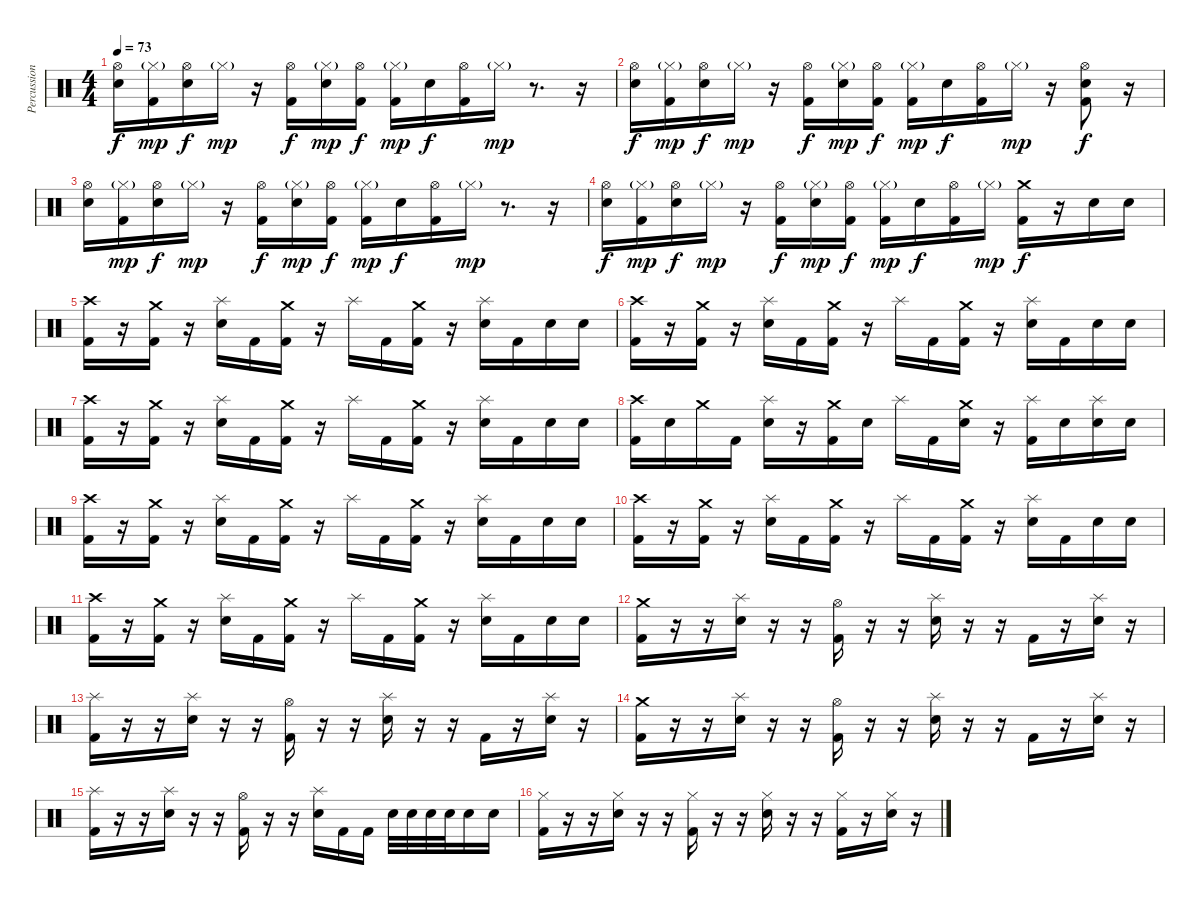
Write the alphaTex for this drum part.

\track ("Percussion" "Percussion") {instrument percussion}
\staff {score}
\articulation defaults
\ts (4 4)
\tempo 73
\clef neutral
\ks c
("Hi-Hat (open)" "Electric Snare (hit)").16{dy f} ("Hi-Hat (closed)"{g} "Kick (hit) 2").16{dy mp} ("Hi-Hat (open)" "Electric Snare (hit)").16{dy f} "Hi-Hat (closed)"{g}.16{dy mp} r.16 ("Hi-Hat (open)" "Kick (hit) 2").16{dy f} ("Hi-Hat (closed)"{g} "Electric Snare (hit)").16{dy mp} ("Hi-Hat (open)" "Kick (hit) 2").16{dy f} ("Hi-Hat (closed)"{g} "Kick (hit) 2").16{dy mp} "Electric Snare (hit)".16{dy f} ("Hi-Hat (open)" "Kick (hit) 2").16 "Hi-Hat (closed)"{g}.16{dy mp} r.8{d} r.16 |
("Hi-Hat (open)" "Electric Snare (hit)").16{dy f} ("Hi-Hat (closed)"{g} "Kick (hit) 2").16{dy mp} ("Hi-Hat (open)" "Electric Snare (hit)").16{dy f} "Hi-Hat (closed)"{g}.16{dy mp} r.16 ("Hi-Hat (open)" "Kick (hit) 2").16{dy f} ("Hi-Hat (closed)"{g} "Electric Snare (hit)").16{dy mp} ("Hi-Hat (open)" "Kick (hit) 2").16{dy f} ("Hi-Hat (closed)"{g} "Kick (hit) 2").16{dy mp} "Electric Snare (hit)".16{dy f} ("Hi-Hat (open)" "Kick (hit) 2").16 "Hi-Hat (closed)"{g}.16{dy mp} r.16 ("Hi-Hat (open)" "Electric Snare (hit)" "Kick (hit) 2").8{dy f} r.16 |
("Hi-Hat (open)" "Electric Snare (hit)").16 ("Hi-Hat (closed)"{g} "Kick (hit) 2").16{dy mp} ("Hi-Hat (open)" "Electric Snare (hit)").16{dy f} "Hi-Hat (closed)"{g}.16{dy mp} r.16 ("Hi-Hat (open)" "Kick (hit) 2").16{dy f} ("Hi-Hat (closed)"{g} "Electric Snare (hit)").16{dy mp} ("Hi-Hat (open)" "Kick (hit) 2").16{dy f} ("Hi-Hat (closed)"{g} "Kick (hit) 2").16{dy mp} "Electric Snare (hit)".16{dy f} ("Hi-Hat (open)" "Kick (hit) 2").16 "Hi-Hat (closed)"{g}.16{dy mp} r.8{d} r.16 |
("Hi-Hat (open)" "Electric Snare (hit)").16{dy f} ("Hi-Hat (closed)"{g} "Kick (hit) 2").16{dy mp} ("Hi-Hat (open)" "Electric Snare (hit)").16{dy f} "Hi-Hat (closed)"{g}.16{dy mp} r.16 ("Hi-Hat (open)" "Kick (hit) 2").16{dy f} ("Hi-Hat (closed)"{g} "Electric Snare (hit)").16{dy mp} ("Hi-Hat (open)" "Kick (hit) 2").16{dy f} ("Hi-Hat (closed)"{g} "Kick (hit) 2").16{dy mp} "Electric Snare (hit)".16{dy f} ("Hi-Hat (open)" "Kick (hit) 2").16 "Hi-Hat (closed)"{g}.16{dy mp} ("Crash medium (hit)" "Kick (hit) 2").16{dy f} r.16 "Electric Snare (hit)".16 "Electric Snare (hit)".16 |
("Crash high (hit)" "Kick (hit) 2").16 r.16 ("Crash medium (hit)" "Kick (hit) 2").16 r.16 ("Splash (hit)" "Electric Snare (hit)").16 "Kick (hit) 2".16 ("Crash medium (hit)" "Kick (hit) 2").16 r.16 "Splash (hit)".16 "Kick (hit) 2".16 ("Crash medium (hit)" "Kick (hit) 2").16 r.16 ("Splash (hit)" "Electric Snare (hit)").16 "Kick (hit) 2".16 "Electric Snare (hit)".16 "Electric Snare (hit)".16 |
("Crash high (hit)" "Kick (hit) 2").16 r.16 ("Crash medium (hit)" "Kick (hit) 2").16 r.16 ("Splash (hit)" "Electric Snare (hit)").16 "Kick (hit) 2".16 ("Crash medium (hit)" "Kick (hit) 2").16 r.16 "Splash (hit)".16 "Kick (hit) 2".16 ("Crash medium (hit)" "Kick (hit) 2").16 r.16 ("Splash (hit)" "Electric Snare (hit)").16 "Kick (hit) 2".16 "Electric Snare (hit)".16 "Electric Snare (hit)".16 |
("Crash high (hit)" "Kick (hit) 2").16 r.16 ("Crash medium (hit)" "Kick (hit) 2").16 r.16 ("Splash (hit)" "Electric Snare (hit)").16 "Kick (hit) 2".16 ("Crash medium (hit)" "Kick (hit) 2").16 r.16 "Splash (hit)".16 "Kick (hit) 2".16 ("Crash medium (hit)" "Kick (hit) 2").16 r.16 ("Splash (hit)" "Electric Snare (hit)").16 "Kick (hit) 2".16 "Electric Snare (hit)".16 "Electric Snare (hit)".16 |
("Crash high (hit)" "Kick (hit) 2").16 "Electric Snare (hit)".16 "Crash medium (hit)".16 "Kick (hit) 2".16 ("Splash (hit)" "Electric Snare (hit)").16 r.16 ("Crash medium (hit)" "Kick (hit) 2").16 "Electric Snare (hit)".16 "Splash (hit)".16 "Kick (hit) 2".16 ("Crash medium (hit)" "Electric Snare (hit)").16 r.16 ("Splash (hit)" "Kick (hit) 2").16 "Electric Snare (hit)".16 ("Splash (hit)" "Electric Snare (hit)").16 "Electric Snare (hit)".16 |
("Crash high (hit)" "Kick (hit) 2").16 r.16 ("Crash medium (hit)" "Kick (hit) 2").16 r.16 ("Splash (hit)" "Electric Snare (hit)").16 "Kick (hit) 2".16 ("Crash medium (hit)" "Kick (hit) 2").16 r.16 "Splash (hit)".16 "Kick (hit) 2".16 ("Crash medium (hit)" "Kick (hit) 2").16 r.16 ("Splash (hit)" "Electric Snare (hit)").16 "Kick (hit) 2".16 "Electric Snare (hit)".16 "Electric Snare (hit)".16 |
("Crash high (hit)" "Kick (hit) 2").16 r.16 ("Crash medium (hit)" "Kick (hit) 2").16 r.16 ("Splash (hit)" "Electric Snare (hit)").16 "Kick (hit) 2".16 ("Crash medium (hit)" "Kick (hit) 2").16 r.16 "Splash (hit)".16 "Kick (hit) 2".16 ("Crash medium (hit)" "Kick (hit) 2").16 r.16 ("Splash (hit)" "Electric Snare (hit)").16 "Kick (hit) 2".16 "Electric Snare (hit)".16 "Electric Snare (hit)".16 |
("Crash high (hit)" "Kick (hit) 2").16 r.16 ("Crash medium (hit)" "Kick (hit) 2").16 r.16 ("Splash (hit)" "Electric Snare (hit)").16 "Kick (hit) 2".16 ("Crash medium (hit)" "Kick (hit) 2").16 r.16 "Splash (hit)".16 "Kick (hit) 2".16 ("Crash medium (hit)" "Kick (hit) 2").16 r.16 ("Splash (hit)" "Electric Snare (hit)").16 "Kick (hit) 2".16 "Electric Snare (hit)".16 "Electric Snare (hit)".16 |
("Crash medium (hit)" "Kick (hit) 2").16 r.16 r.16 ("Splash (hit)" "Electric Snare (hit)").16 r.16 r.16 ("Hi-Hat (open)" "Kick (hit) 2").16 r.16 r.16 ("Splash (hit)" "Electric Snare (hit)").16 r.16 r.16 "Kick (hit) 2".16 r.16 ("Splash (hit)" "Electric Snare (hit)").16 r.16 |
("Splash (hit)" "Kick (hit) 2").16 r.16 r.16 ("Splash (hit)" "Electric Snare (hit)").16 r.16 r.16 ("Hi-Hat (open)" "Kick (hit) 2").16 r.16 r.16 ("Splash (hit)" "Electric Snare (hit)").16 r.16 r.16 "Kick (hit) 2".16 r.16 ("Splash (hit)" "Electric Snare (hit)").16 r.16 |
("Crash medium (hit)" "Kick (hit) 2").16 r.16 r.16 ("Splash (hit)" "Electric Snare (hit)").16 r.16 r.16 ("Hi-Hat (open)" "Kick (hit) 2").16 r.16 r.16 ("Splash (hit)" "Electric Snare (hit)").16 r.16 r.16 "Kick (hit) 2".16 r.16 ("Splash (hit)" "Electric Snare (hit)").16 r.16 |
("Splash (hit)" "Kick (hit) 2").16 r.16 r.16 ("Splash (hit)" "Electric Snare (hit)").16 r.16 r.16 ("Hi-Hat (open)" "Kick (hit) 2").16 r.16 r.16 ("Splash (hit)" "Electric Snare (hit)").16 "Kick (hit) 2".16 "Kick (hit) 2".16 "Electric Snare (hit)".32 "Electric Snare (hit)".32 "Electric Snare (hit)".32 "Electric Snare (hit)".32 "Electric Snare (hit)".16 "Electric Snare (hit)".16 |
("Hi-Hat (closed)" "Kick (hit) 2").16 r.16 r.16 ("Hi-Hat (closed)" "Electric Snare (hit)").16 r.16 r.16 ("Hi-Hat (closed)" "Kick (hit) 2").16 r.16 r.16 ("Hi-Hat (closed)" "Electric Snare (hit)").16 r.16 r.16 ("Hi-Hat (closed)" "Kick (hit) 2").16 r.16 ("Hi-Hat (closed)" "Electric Snare (hit)").16 r.16
